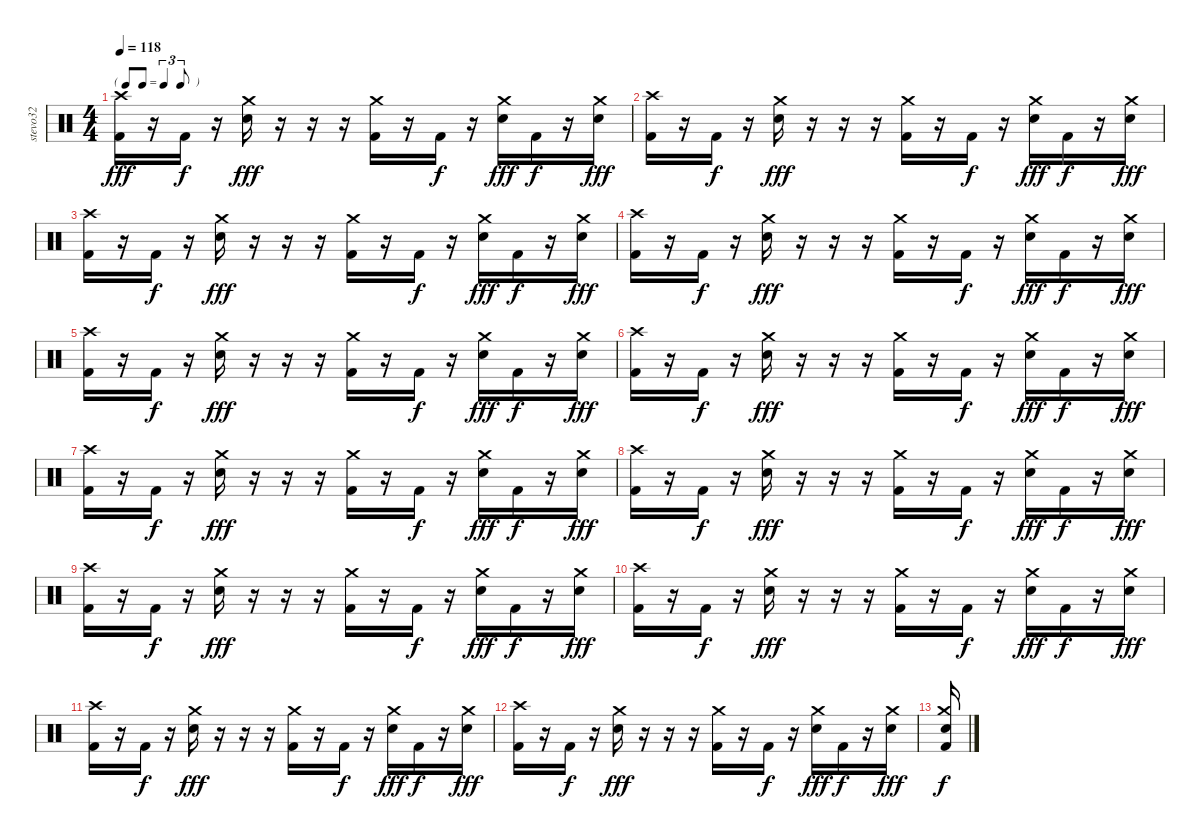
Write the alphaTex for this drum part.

\track ("stevo32" "stevo32") {instrument percussion}
\staff {score}
\articulation defaults
\ts (4 4)
\tf triplet8th
\tempo 118
\clef neutral
\ks c
("Crash high (hit)" "Kick (hit) 2").16{dy fff} r.16 "Kick (hit) 2".16{dy f} r.16 ("Crash medium (hit)" "Electric Snare (hit)").16{dy fff} r.16 r.16 r.16 ("Crash medium (hit)" "Kick (hit) 2").16 r.16 "Kick (hit) 2".16{dy f} r.16 ("Crash medium (hit)" "Electric Snare (hit)").16{dy fff} "Kick (hit) 2".16{dy f} r.16 ("Crash medium (hit)" "Electric Snare (hit)").16{dy fff} |
("Crash high (hit)" "Kick (hit) 2").16 r.16 "Kick (hit) 2".16{dy f} r.16 ("Crash medium (hit)" "Electric Snare (hit)").16{dy fff} r.16 r.16 r.16 ("Crash medium (hit)" "Kick (hit) 2").16 r.16 "Kick (hit) 2".16{dy f} r.16 ("Crash medium (hit)" "Electric Snare (hit)").16{dy fff} "Kick (hit) 2".16{dy f} r.16 ("Crash medium (hit)" "Electric Snare (hit)").16{dy fff} |
("Crash high (hit)" "Kick (hit) 2").16 r.16 "Kick (hit) 2".16{dy f} r.16 ("Crash medium (hit)" "Electric Snare (hit)").16{dy fff} r.16 r.16 r.16 ("Crash medium (hit)" "Kick (hit) 2").16 r.16 "Kick (hit) 2".16{dy f} r.16 ("Crash medium (hit)" "Electric Snare (hit)").16{dy fff} "Kick (hit) 2".16{dy f} r.16 ("Crash medium (hit)" "Electric Snare (hit)").16{dy fff} |
("Crash high (hit)" "Kick (hit) 2").16 r.16 "Kick (hit) 2".16{dy f} r.16 ("Crash medium (hit)" "Electric Snare (hit)").16{dy fff} r.16 r.16 r.16 ("Crash medium (hit)" "Kick (hit) 2").16 r.16 "Kick (hit) 2".16{dy f} r.16 ("Crash medium (hit)" "Electric Snare (hit)").16{dy fff} "Kick (hit) 2".16{dy f} r.16 ("Crash medium (hit)" "Electric Snare (hit)").16{dy fff} |
("Crash high (hit)" "Kick (hit) 2").16 r.16 "Kick (hit) 2".16{dy f} r.16 ("Crash medium (hit)" "Electric Snare (hit)").16{dy fff} r.16 r.16 r.16 ("Crash medium (hit)" "Kick (hit) 2").16 r.16 "Kick (hit) 2".16{dy f} r.16 ("Crash medium (hit)" "Electric Snare (hit)").16{dy fff} "Kick (hit) 2".16{dy f} r.16 ("Crash medium (hit)" "Electric Snare (hit)").16{dy fff} |
("Crash high (hit)" "Kick (hit) 2").16 r.16 "Kick (hit) 2".16{dy f} r.16 ("Crash medium (hit)" "Electric Snare (hit)").16{dy fff} r.16 r.16 r.16 ("Crash medium (hit)" "Kick (hit) 2").16 r.16 "Kick (hit) 2".16{dy f} r.16 ("Crash medium (hit)" "Electric Snare (hit)").16{dy fff} "Kick (hit) 2".16{dy f} r.16 ("Crash medium (hit)" "Electric Snare (hit)").16{dy fff} |
("Crash high (hit)" "Kick (hit) 2").16 r.16 "Kick (hit) 2".16{dy f} r.16 ("Crash medium (hit)" "Electric Snare (hit)").16{dy fff} r.16 r.16 r.16 ("Crash medium (hit)" "Kick (hit) 2").16 r.16 "Kick (hit) 2".16{dy f} r.16 ("Crash medium (hit)" "Electric Snare (hit)").16{dy fff} "Kick (hit) 2".16{dy f} r.16 ("Crash medium (hit)" "Electric Snare (hit)").16{dy fff} |
("Crash high (hit)" "Kick (hit) 2").16 r.16 "Kick (hit) 2".16{dy f} r.16 ("Crash medium (hit)" "Electric Snare (hit)").16{dy fff} r.16 r.16 r.16 ("Crash medium (hit)" "Kick (hit) 2").16 r.16 "Kick (hit) 2".16{dy f} r.16 ("Crash medium (hit)" "Electric Snare (hit)").16{dy fff} "Kick (hit) 2".16{dy f} r.16 ("Crash medium (hit)" "Electric Snare (hit)").16{dy fff} |
("Crash high (hit)" "Kick (hit) 2").16 r.16 "Kick (hit) 2".16{dy f} r.16 ("Crash medium (hit)" "Electric Snare (hit)").16{dy fff} r.16 r.16 r.16 ("Crash medium (hit)" "Kick (hit) 2").16 r.16 "Kick (hit) 2".16{dy f} r.16 ("Crash medium (hit)" "Electric Snare (hit)").16{dy fff} "Kick (hit) 2".16{dy f} r.16 ("Crash medium (hit)" "Electric Snare (hit)").16{dy fff} |
("Crash high (hit)" "Kick (hit) 2").16 r.16 "Kick (hit) 2".16{dy f} r.16 ("Crash medium (hit)" "Electric Snare (hit)").16{dy fff} r.16 r.16 r.16 ("Crash medium (hit)" "Kick (hit) 2").16 r.16 "Kick (hit) 2".16{dy f} r.16 ("Crash medium (hit)" "Electric Snare (hit)").16{dy fff} "Kick (hit) 2".16{dy f} r.16 ("Crash medium (hit)" "Electric Snare (hit)").16{dy fff} |
("Crash high (hit)" "Kick (hit) 2").16 r.16 "Kick (hit) 2".16{dy f} r.16 ("Crash medium (hit)" "Electric Snare (hit)").16{dy fff} r.16 r.16 r.16 ("Crash medium (hit)" "Kick (hit) 2").16 r.16 "Kick (hit) 2".16{dy f} r.16 ("Crash medium (hit)" "Electric Snare (hit)").16{dy fff} "Kick (hit) 2".16{dy f} r.16 ("Crash medium (hit)" "Electric Snare (hit)").16{dy fff} |
("Crash high (hit)" "Kick (hit) 2").16 r.16 "Kick (hit) 2".16{dy f} r.16 ("Crash medium (hit)" "Electric Snare (hit)").16{dy fff} r.16 r.16 r.16 ("Crash medium (hit)" "Kick (hit) 2").16 r.16 "Kick (hit) 2".16{dy f} r.16 ("Crash medium (hit)" "Electric Snare (hit)").16{dy fff} "Kick (hit) 2".16{dy f} r.16 ("Crash medium (hit)" "Electric Snare (hit)").16{dy fff} |
("Kick (hit) 2" "Crash medium (hit)" "Electric Snare (hit)").16{dy f}
